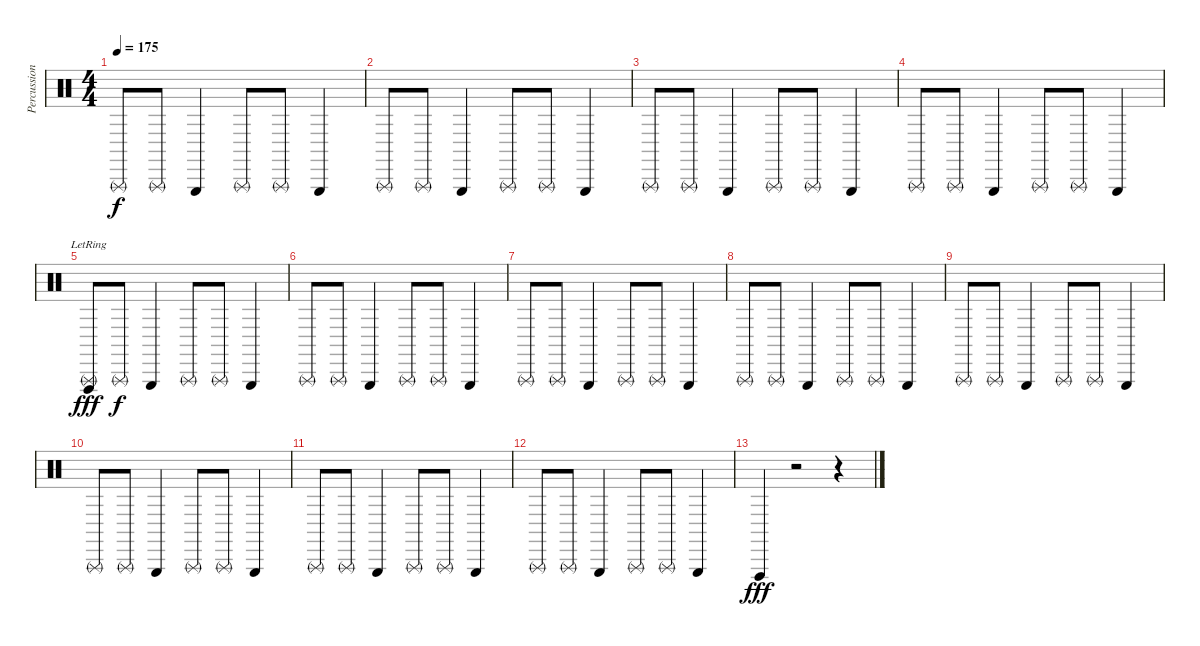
\track ("Percussion" "Percussion") {instrument percussion}
\staff {score}
\articulation defaults
\ts (4 4)
\tempo 175
\clef neutral
\ks c "Triangle (rnute)".8{dy f} "Triangle (rnute)".8 "Triangle (hit)".4 "Triangle (rnute)".8 "Triangle (rnute)".8 "Triangle (hit)".4
|
"Triangle (rnute)".8 "Triangle (rnute)".8 "Triangle (hit)".4 "Triangle (rnute)".8 "Triangle (rnute)".8 "Triangle (hit)".4 |
"Triangle (rnute)".8 "Triangle (rnute)".8 "Triangle (hit)".4 "Triangle (rnute)".8 "Triangle (rnute)".8 "Triangle (hit)".4 |
"Triangle (rnute)".8 "Triangle (rnute)".8 "Triangle (hit)".4 "Triangle (rnute)".8 "Triangle (rnute)".8 "Triangle (hit)".4 |
("Triangle (rnute)" "Vibraslap (hit)"{lr}).8{dy fff} "Triangle (rnute)".8{dy f} "Triangle (hit)".4 "Triangle (rnute)".8 "Triangle (rnute)".8 "Triangle (hit)".4 |
"Triangle (rnute)".8 "Triangle (rnute)".8 "Triangle (hit)".4 "Triangle (rnute)".8 "Triangle (rnute)".8 "Triangle (hit)".4 |
"Triangle (rnute)".8 "Triangle (rnute)".8 "Triangle (hit)".4 "Triangle (rnute)".8 "Triangle (rnute)".8 "Triangle (hit)".4 |
"Triangle (rnute)".8 "Triangle (rnute)".8 "Triangle (hit)".4 "Triangle (rnute)".8 "Triangle (rnute)".8 "Triangle (hit)".4 |
"Triangle (rnute)".8 "Triangle (rnute)".8 "Triangle (hit)".4 "Triangle (rnute)".8 "Triangle (rnute)".8 "Triangle (hit)".4 |
"Triangle (rnute)".8 "Triangle (rnute)".8 "Triangle (hit)".4 "Triangle (rnute)".8 "Triangle (rnute)".8 "Triangle (hit)".4 |
"Triangle (rnute)".8 "Triangle (rnute)".8 "Triangle (hit)".4 "Triangle (rnute)".8 "Triangle (rnute)".8 "Triangle (hit)".4 |
"Triangle (rnute)".8 "Triangle (rnute)".8 "Triangle (hit)".4 "Triangle (rnute)".8 "Triangle (rnute)".8 "Triangle (hit)".4 |
"Vibraslap (hit)".4{dy fff} r.2 r.4
